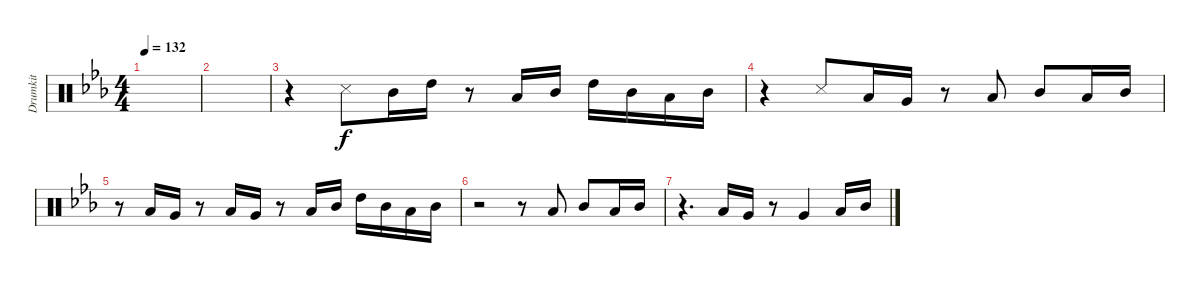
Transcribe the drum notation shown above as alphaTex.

\track ("Drumkit" "Drumkit") {instrument percussion}
\staff {score}
\articulation defaults
\ts (4 4)
\tempo 132
\clef neutral
\ks eb
|
|
r.4 "Snare (side stick) 3".8 "Mid Tom (hit)".16 "High Tom (hit)".16 r.8 "Low Tom (hit)".16 "Mid Tom (hit)".16 "High Tom (hit)".16 "Mid Tom (hit)".16 "Low Tom (hit)".16 "Mid Tom (hit)".16 |
r.4 "Snare (side stick) 3".8 "Low Floor Tom (hit)".16 "Very Low Tom (hit)".16 r.8 "Low Tom (hit)".8 "Mid Tom (hit)".8 "Low Tom (hit)".16 "Mid Tom (hit)".16 |
r.8 "Low Floor Tom (hit)".16 "Very Low Tom (hit)".16 r.8 "Low Floor Tom (hit)".16 "Very Low Tom (hit)".16 r.8 "Low Tom (hit)".16 "Mid Tom (hit)".16 "High Tom (hit)".16 "Mid Tom (hit)".16 "Low Tom (hit)".16 "Mid Tom (hit)".16 |
r.2 r.8 "Low Tom (hit)".8 "Mid Tom (hit)".8 "Low Tom (hit)".16 "Mid Tom (hit)".16 |
r.4{d} "Low Tom (hit)".16 "Very Low Tom (hit)".16 r.8 "Very Low Tom (hit)".4 "Low Tom (hit)".16 "Mid Tom (hit)".16
